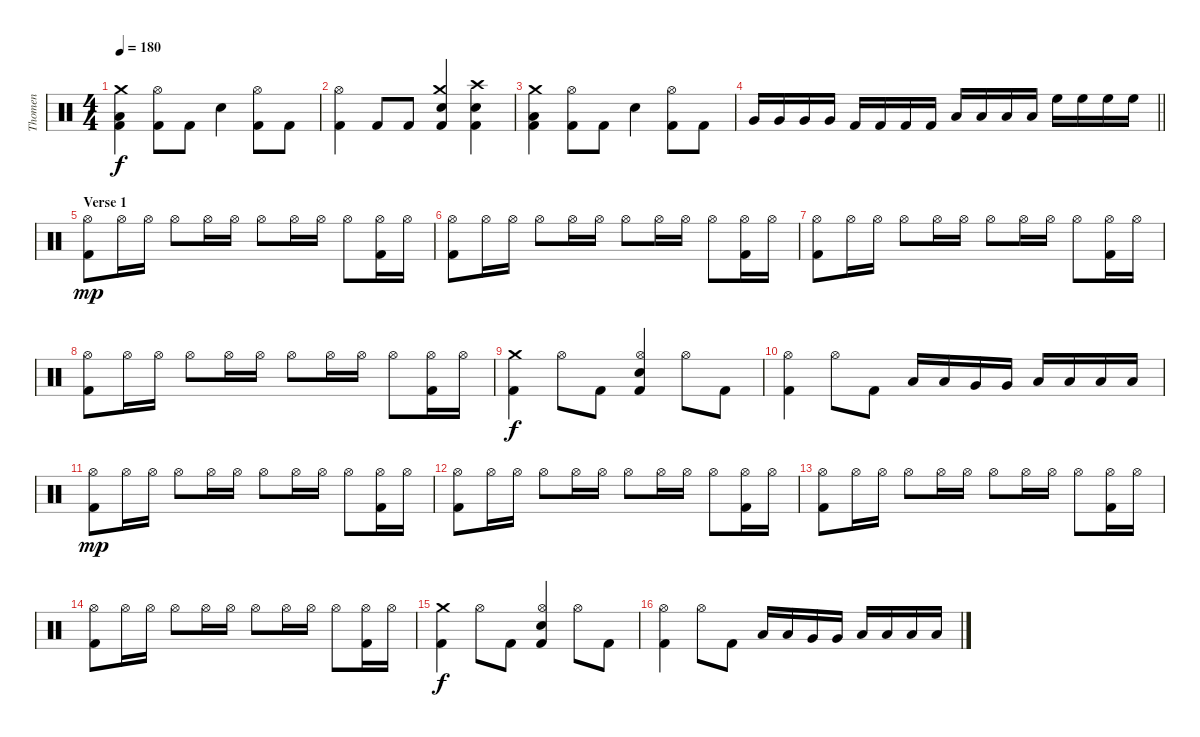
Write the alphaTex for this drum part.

\track ("Thomen" "Thomen") {instrument percussion}
\staff {score}
\articulation defaults
\ts (4 4)
\tempo 180
\clef neutral
\ks c
("Kick (hit) 2" "Low Floor Tom (hit)" "Crash medium (hit)").4{dy f} ("Kick (hit) 2" "Hi-Hat (open)").8 "Kick (hit) 2".8 "Electric Snare (hit)".4 ("Kick (hit) 2" "Hi-Hat (open)").8 "Kick (hit) 2".8 |
("Kick (hit) 2" "Hi-Hat (open)").4 "Kick (hit) 2".8 "Kick (hit) 2".8 ("Kick (hit) 2" "Electric Snare (hit)" "Crash medium (hit)").4 ("Kick (hit) 2" "Electric Snare (hit)" "Crash high (hit)").4 |
("Kick (hit) 2" "Low Floor Tom (hit)" "Crash medium (hit)").4 ("Kick (hit) 2" "Hi-Hat (open)").8 "Kick (hit) 2".8 "Electric Snare (hit)".4 ("Kick (hit) 2" "Hi-Hat (open)").8 "Kick (hit) 2".8 |
\barLineRight lightlight "Very Low Tom (hit)".16 "Very Low Tom (hit)".16 "Very Low Tom (hit)".16 "Very Low Tom (hit)".16 "Kick (hit) 2".16 "Kick (hit) 2".16 "Kick (hit) 2".16 "Kick (hit) 2".16 "Low Tom (hit)".16 "Low Tom (hit)".16 "Low Tom (hit)".16 "Low Tom (hit)".16 "High Floor Tom (hit)".16 "High Floor Tom (hit)".16 "High Floor Tom (hit)".16 "High Floor Tom (hit)".16
|
\section ("" "Verse 1")
("Kick (hit) 2" "Hi-Hat (open)").8{dy mp} "Hi-Hat (open)".16 "Hi-Hat (open)".16 "Hi-Hat (open)".8 "Hi-Hat (open)".16 "Hi-Hat (open)".16 "Hi-Hat (open)".8 "Hi-Hat (open)".16 "Hi-Hat (open)".16 "Hi-Hat (open)".8 ("Kick (hit) 2" "Hi-Hat (open)").16 "Hi-Hat (open)".16 |
("Kick (hit) 2" "Hi-Hat (open)").8 "Hi-Hat (open)".16 "Hi-Hat (open)".16 "Hi-Hat (open)".8 "Hi-Hat (open)".16 "Hi-Hat (open)".16 "Hi-Hat (open)".8 "Hi-Hat (open)".16 "Hi-Hat (open)".16 "Hi-Hat (open)".8 ("Kick (hit) 2" "Hi-Hat (open)").16 "Hi-Hat (open)".16 |
("Kick (hit) 2" "Hi-Hat (open)").8 "Hi-Hat (open)".16 "Hi-Hat (open)".16 "Hi-Hat (open)".8 "Hi-Hat (open)".16 "Hi-Hat (open)".16 "Hi-Hat (open)".8 "Hi-Hat (open)".16 "Hi-Hat (open)".16 "Hi-Hat (open)".8 ("Kick (hit) 2" "Hi-Hat (open)").16 "Hi-Hat (open)".16 |
("Kick (hit) 2" "Hi-Hat (open)").8 "Hi-Hat (open)".16 "Hi-Hat (open)".16 "Hi-Hat (open)".8 "Hi-Hat (open)".16 "Hi-Hat (open)".16 "Hi-Hat (open)".8 "Hi-Hat (open)".16 "Hi-Hat (open)".16 "Hi-Hat (open)".8 ("Kick (hit) 2" "Hi-Hat (open)").16 "Hi-Hat (open)".16 |
("Kick (hit) 2" "Crash medium (hit)").4{dy f} "Hi-Hat (open)".8 "Kick (hit) 2".8 ("Kick (hit) 2" "Electric Snare (hit)" "Hi-Hat (open)").4 "Hi-Hat (open)".8 "Kick (hit) 2".8 |
("Kick (hit) 2" "Hi-Hat (open)").4 "Hi-Hat (open)".8 "Kick (hit) 2".8 "Low Floor Tom (hit)".16 "Low Floor Tom (hit)".16 "Very Low Tom (hit)".16 "Very Low Tom (hit)".16 "Low Tom (hit)".16 "Low Tom (hit)".16 "Low Tom (hit)".16 "Low Tom (hit)".16 |
("Kick (hit) 2" "Hi-Hat (open)").8{dy mp} "Hi-Hat (open)".16 "Hi-Hat (open)".16 "Hi-Hat (open)".8 "Hi-Hat (open)".16 "Hi-Hat (open)".16 "Hi-Hat (open)".8 "Hi-Hat (open)".16 "Hi-Hat (open)".16 "Hi-Hat (open)".8 ("Kick (hit) 2" "Hi-Hat (open)").16 "Hi-Hat (open)".16 |
("Kick (hit) 2" "Hi-Hat (open)").8 "Hi-Hat (open)".16 "Hi-Hat (open)".16 "Hi-Hat (open)".8 "Hi-Hat (open)".16 "Hi-Hat (open)".16 "Hi-Hat (open)".8 "Hi-Hat (open)".16 "Hi-Hat (open)".16 "Hi-Hat (open)".8 ("Kick (hit) 2" "Hi-Hat (open)").16 "Hi-Hat (open)".16 |
("Kick (hit) 2" "Hi-Hat (open)").8 "Hi-Hat (open)".16 "Hi-Hat (open)".16 "Hi-Hat (open)".8 "Hi-Hat (open)".16 "Hi-Hat (open)".16 "Hi-Hat (open)".8 "Hi-Hat (open)".16 "Hi-Hat (open)".16 "Hi-Hat (open)".8 ("Kick (hit) 2" "Hi-Hat (open)").16 "Hi-Hat (open)".16 |
("Kick (hit) 2" "Hi-Hat (open)").8 "Hi-Hat (open)".16 "Hi-Hat (open)".16 "Hi-Hat (open)".8 "Hi-Hat (open)".16 "Hi-Hat (open)".16 "Hi-Hat (open)".8 "Hi-Hat (open)".16 "Hi-Hat (open)".16 "Hi-Hat (open)".8 ("Kick (hit) 2" "Hi-Hat (open)").16 "Hi-Hat (open)".16 |
("Kick (hit) 2" "Crash medium (hit)").4{dy f} "Hi-Hat (open)".8 "Kick (hit) 2".8 ("Kick (hit) 2" "Electric Snare (hit)" "Hi-Hat (open)").4 "Hi-Hat (open)".8 "Kick (hit) 2".8 |
("Kick (hit) 2" "Hi-Hat (open)").4 "Hi-Hat (open)".8 "Kick (hit) 2".8 "Low Floor Tom (hit)".16 "Low Floor Tom (hit)".16 "Very Low Tom (hit)".16 "Very Low Tom (hit)".16 "Low Tom (hit)".16 "Low Tom (hit)".16 "Low Tom (hit)".16 "Low Tom (hit)".16
